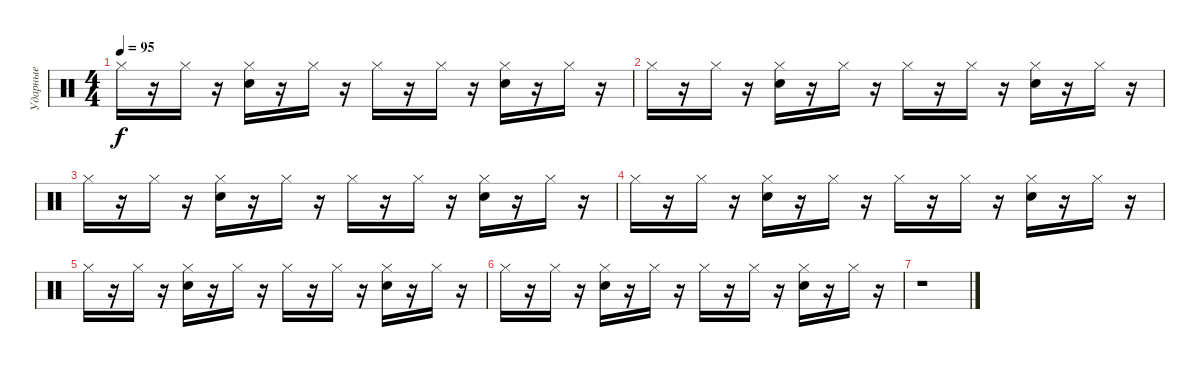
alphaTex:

\track ("Ударные" "Ударные") {instrument percussion}
\staff {score}
\articulation defaults
\ts (4 4)
\tempo 95
\clef neutral
\ks c "Hi-Hat (closed)".16{dy f}
r.16 "Hi-Hat (closed)".16 r.16 ("Hi-Hat (closed)" "Electric Snare (hit)").16 r.16 "Hi-Hat (closed)".16 r.16 "Hi-Hat (closed)".16 r.16 "Hi-Hat (closed)".16 r.16 ("Hi-Hat (closed)" "Electric Snare (hit)").16 r.16 "Hi-Hat (closed)".16 r.16 |
"Hi-Hat (closed)".16 r.16 "Hi-Hat (closed)".16 r.16 ("Hi-Hat (closed)" "Electric Snare (hit)").16 r.16 "Hi-Hat (closed)".16 r.16 "Hi-Hat (closed)".16 r.16 "Hi-Hat (closed)".16 r.16 ("Hi-Hat (closed)" "Electric Snare (hit)").16 r.16 "Hi-Hat (closed)".16 r.16 |
"Hi-Hat (closed)".16 r.16 "Hi-Hat (closed)".16 r.16 ("Hi-Hat (closed)" "Electric Snare (hit)").16 r.16 "Hi-Hat (closed)".16 r.16 "Hi-Hat (closed)".16 r.16 "Hi-Hat (closed)".16 r.16 ("Hi-Hat (closed)" "Electric Snare (hit)").16 r.16 "Hi-Hat (closed)".16 r.16 |
"Hi-Hat (closed)".16 r.16 "Hi-Hat (closed)".16 r.16 ("Hi-Hat (closed)" "Electric Snare (hit)").16 r.16 "Hi-Hat (closed)".16 r.16 "Hi-Hat (closed)".16 r.16 "Hi-Hat (closed)".16 r.16 ("Hi-Hat (closed)" "Electric Snare (hit)").16 r.16 "Hi-Hat (closed)".16 r.16 |
"Hi-Hat (closed)".16 r.16 "Hi-Hat (closed)".16 r.16 ("Hi-Hat (closed)" "Electric Snare (hit)").16 r.16 "Hi-Hat (closed)".16 r.16 "Hi-Hat (closed)".16 r.16 "Hi-Hat (closed)".16 r.16 ("Hi-Hat (closed)" "Electric Snare (hit)").16 r.16 "Hi-Hat (closed)".16 r.16 |
"Hi-Hat (closed)".16 r.16 "Hi-Hat (closed)".16 r.16 ("Hi-Hat (closed)" "Electric Snare (hit)").16 r.16 "Hi-Hat (closed)".16 r.16 "Hi-Hat (closed)".16 r.16 "Hi-Hat (closed)".16 r.16 ("Hi-Hat (closed)" "Electric Snare (hit)").16 r.16 "Hi-Hat (closed)".16 r.16 |
r.1
